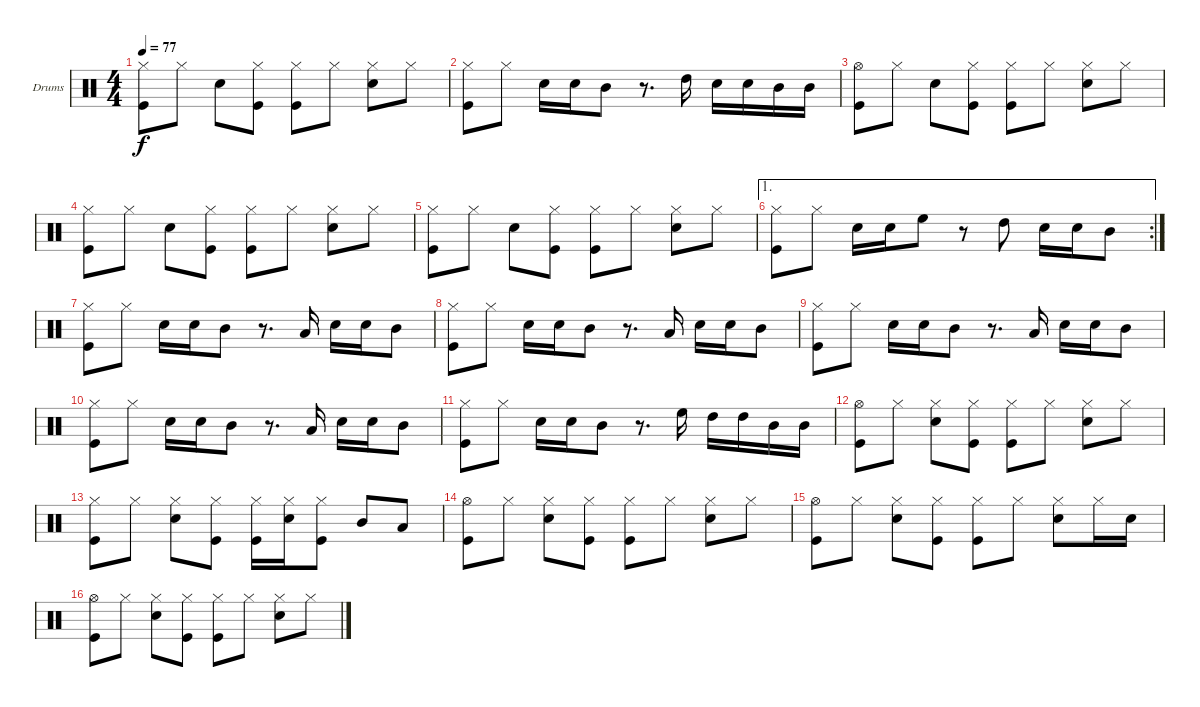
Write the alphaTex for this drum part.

\bracketExtendMode groupsimilarinstruments
\firstSystemTrackNameOrientation horizontal
\otherSystemsTrackNameOrientation horizontal
\track ("Drumkit" "Drums") {instrument percussion}
\staff {score}
\articulation defaults
\ts (4 4)
\tempo 77
\clef neutral
\ks c
("Kick (hit)" "Hi-Hat (closed)").8{dy f} "Hi-Hat (closed)".8 "Snare (hit) 2".8 ("Hi-Hat (closed)" "Kick (hit)").8 ("Hi-Hat (closed)" "Kick (hit)").8 "Hi-Hat (closed)".8 ("Hi-Hat (closed)" "Snare (hit) 2").8 "Hi-Hat (closed)".8 |
("Kick (hit)" "Hi-Hat (closed)").8 "Hi-Hat (closed)".8 "Snare (hit) 2".16 "Snare (hit) 2".16 "Mid Tom (hit)".8 r.8{d} "High Tom (hit)".16 "Snare (hit) 2".16 "Snare (hit) 2".16 "Mid Tom (hit)".16 "Mid Tom (hit)".16 |
("Hi-Hat (open)" "Kick (hit)").8 "Hi-Hat (closed)".8 "Snare (hit) 2".8 ("Hi-Hat (closed)" "Kick (hit)").8 ("Hi-Hat (closed)" "Kick (hit)").8 "Hi-Hat (closed)".8 ("Hi-Hat (closed)" "Snare (hit) 2").8 "Hi-Hat (closed)".8 |
("Kick (hit)" "Hi-Hat (closed)").8 "Hi-Hat (closed)".8 "Snare (hit) 2".8 ("Hi-Hat (closed)" "Kick (hit)").8 ("Hi-Hat (closed)" "Kick (hit)").8 "Hi-Hat (closed)".8 ("Hi-Hat (closed)" "Snare (hit) 2").8 "Hi-Hat (closed)".8 |
("Kick (hit)" "Hi-Hat (closed)").8 "Hi-Hat (closed)".8 "Snare (hit) 2".8 ("Hi-Hat (closed)" "Kick (hit)").8 ("Hi-Hat (closed)" "Kick (hit)").8 "Hi-Hat (closed)".8 ("Hi-Hat (closed)" "Snare (hit) 2").8 "Hi-Hat (closed)".8 |
\ae 1
\rc 1
("Kick (hit)" "Hi-Hat (closed)").8 "Hi-Hat (closed)".8 "Snare (hit) 2".16 "Snare (hit) 2".16 "High Floor Tom (hit)".8 r.8 "High Tom (hit)".8 "Snare (hit) 2".16 "Snare (hit) 2".16 "Mid Tom (hit)".8 |
("Hi-Hat (closed)" "Kick (hit)").8 "Hi-Hat (closed)".8 "Snare (hit) 2".16 "Snare (hit) 2".16 "Mid Tom (hit)".8 r.8{d} "Low Tom (hit)".16 "Snare (hit) 2".16 "Snare (hit) 2".16 "Mid Tom (hit)".8 |
("Hi-Hat (closed)" "Kick (hit)").8 "Hi-Hat (closed)".8 "Snare (hit) 2".16 "Snare (hit) 2".16 "Mid Tom (hit)".8 r.8{d} "Low Tom (hit)".16 "Snare (hit) 2".16 "Snare (hit) 2".16 "Mid Tom (hit)".8 |
("Hi-Hat (closed)" "Kick (hit)").8 "Hi-Hat (closed)".8 "Snare (hit) 2".16 "Snare (hit) 2".16 "Mid Tom (hit)".8 r.8{d} "Low Tom (hit)".16 "Snare (hit) 2".16 "Snare (hit) 2".16 "Mid Tom (hit)".8 |
("Hi-Hat (closed)" "Kick (hit)").8 "Hi-Hat (closed)".8 "Snare (hit) 2".16 "Snare (hit) 2".16 "Mid Tom (hit)".8 r.8{d} "Low Tom (hit)".16 "Snare (hit) 2".16 "Snare (hit) 2".16 "Mid Tom (hit)".8 |
("Hi-Hat (closed)" "Kick (hit)").8 "Hi-Hat (closed)".8 "Snare (hit) 2".16 "Snare (hit) 2".16 "Mid Tom (hit)".8 r.8{d} "High Floor Tom (hit)".16 "High Tom (hit)".16 "High Tom (hit)".16 "Mid Tom (hit)".16 "Mid Tom (hit)".16 |
("Hi-Hat (open)" "Kick (hit)").8 "Hi-Hat (closed)".8 ("Hi-Hat (closed)" "Snare (hit) 2").8 ("Hi-Hat (closed)" "Kick (hit)").8 ("Hi-Hat (closed)" "Kick (hit)").8 "Hi-Hat (closed)".8 ("Hi-Hat (closed)" "Snare (hit) 2").8 "Hi-Hat (closed)".8 |
("Hi-Hat (closed)" "Kick (hit)").8 "Hi-Hat (closed)".8 ("Hi-Hat (closed)" "Snare (hit) 2").8 ("Hi-Hat (closed)" "Kick (hit)").8 ("Hi-Hat (closed)" "Kick (hit)").16 ("Hi-Hat (closed)" "Snare (hit) 2").16 ("Hi-Hat (closed)" "Kick (hit)").8 "Mid Tom (hit)".8 "Low Tom (hit)".8 |
("Hi-Hat (open)" "Kick (hit)").8 "Hi-Hat (closed)".8 ("Hi-Hat (closed)" "Snare (hit) 2").8 ("Hi-Hat (closed)" "Kick (hit)").8 ("Hi-Hat (closed)" "Kick (hit)").8 "Hi-Hat (closed)".8 ("Hi-Hat (closed)" "Snare (hit) 2").8 "Hi-Hat (closed)".8 |
("Hi-Hat (open)" "Kick (hit)").8 "Hi-Hat (closed)".8 ("Hi-Hat (closed)" "Snare (hit) 2").8 ("Hi-Hat (closed)" "Kick (hit)").8 ("Hi-Hat (closed)" "Kick (hit)").8 "Hi-Hat (closed)".8 ("Hi-Hat (closed)" "Snare (hit) 2").8 "Hi-Hat (closed)".16 "Snare (hit) 2".16 |
("Hi-Hat (open)" "Kick (hit)").8 "Hi-Hat (closed)".8 ("Hi-Hat (closed)" "Snare (hit) 2").8 ("Hi-Hat (closed)" "Kick (hit)").8 ("Hi-Hat (closed)" "Kick (hit)").8 "Hi-Hat (closed)".8 ("Hi-Hat (closed)" "Snare (hit) 2").8 "Hi-Hat (closed)".8
